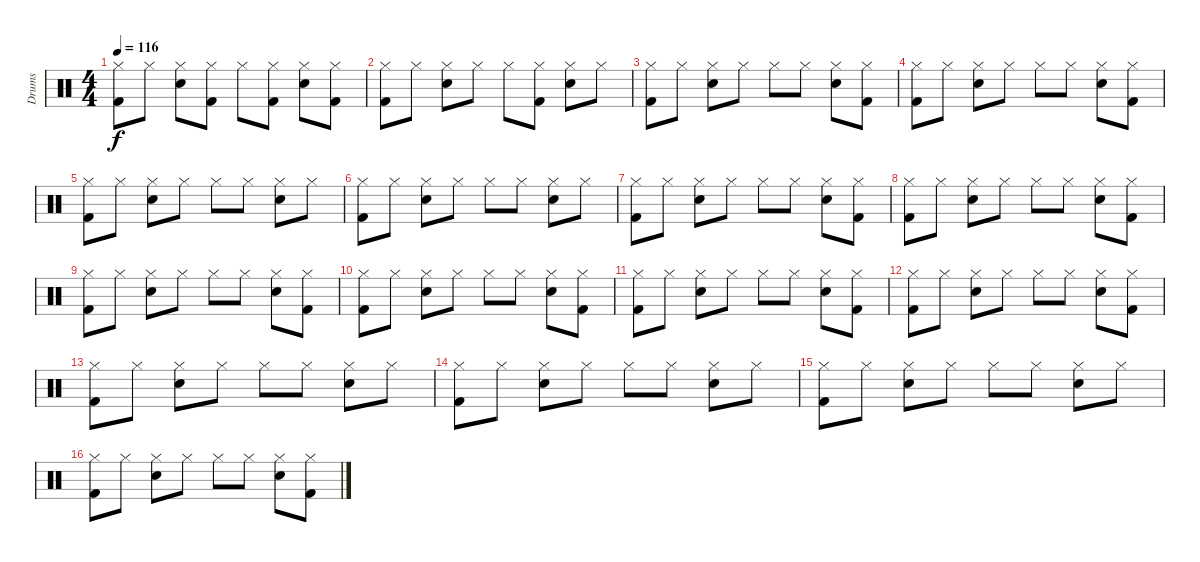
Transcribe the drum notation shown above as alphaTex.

\track ("Drums" "Drums") {instrument percussion}
\staff {score}
\articulation defaults
\ts (4 4)
\tempo 116
\clef neutral
\ks c
("Kick (hit) 2" "Hi-Hat (closed)").8{dy f} "Hi-Hat (closed)".8 ("Snare (hit) 2" "Hi-Hat (closed)").8 ("Kick (hit) 2" "Hi-Hat (closed)").8 "Hi-Hat (closed)".8 ("Kick (hit) 2" "Hi-Hat (closed)").8 ("Snare (hit) 2" "Hi-Hat (closed)").8 ("Kick (hit) 2" "Hi-Hat (closed)").8 |
("Kick (hit) 2" "Hi-Hat (closed)").8 "Hi-Hat (closed)".8 ("Snare (hit) 2" "Hi-Hat (closed)").8 "Hi-Hat (closed)".8 "Hi-Hat (closed)".8 ("Kick (hit) 2" "Hi-Hat (closed)").8 ("Snare (hit) 2" "Hi-Hat (closed)").8 "Hi-Hat (closed)".8 |
("Kick (hit) 2" "Hi-Hat (closed)").8 "Hi-Hat (closed)".8 ("Snare (hit) 2" "Hi-Hat (closed)").8 "Hi-Hat (closed)".8 "Hi-Hat (closed)".8 "Hi-Hat (closed)".8 ("Snare (hit) 2" "Hi-Hat (closed)").8 ("Kick (hit) 2" "Hi-Hat (closed)").8 |
("Kick (hit) 2" "Hi-Hat (closed)").8 "Hi-Hat (closed)".8 ("Snare (hit) 2" "Hi-Hat (closed)").8 "Hi-Hat (closed)".8 "Hi-Hat (closed)".8 "Hi-Hat (closed)".8 ("Snare (hit) 2" "Hi-Hat (closed)").8 ("Kick (hit) 2" "Hi-Hat (closed)").8 |
("Kick (hit) 2" "Hi-Hat (closed)").8 "Hi-Hat (closed)".8 ("Snare (hit) 2" "Hi-Hat (closed)").8 "Hi-Hat (closed)".8 "Hi-Hat (closed)".8 "Hi-Hat (closed)".8 ("Snare (hit) 2" "Hi-Hat (closed)").8 "Hi-Hat (closed)".8 |
("Kick (hit) 2" "Hi-Hat (closed)").8 "Hi-Hat (closed)".8 ("Snare (hit) 2" "Hi-Hat (closed)").8 "Hi-Hat (closed)".8 "Hi-Hat (closed)".8 "Hi-Hat (closed)".8 ("Snare (hit) 2" "Hi-Hat (closed)").8 "Hi-Hat (closed)".8 |
("Kick (hit) 2" "Hi-Hat (closed)").8 "Hi-Hat (closed)".8 ("Snare (hit) 2" "Hi-Hat (closed)").8 "Hi-Hat (closed)".8 "Hi-Hat (closed)".8 "Hi-Hat (closed)".8 ("Snare (hit) 2" "Hi-Hat (closed)").8 ("Kick (hit) 2" "Hi-Hat (closed)").8 |
("Kick (hit) 2" "Hi-Hat (closed)").8 "Hi-Hat (closed)".8 ("Snare (hit) 2" "Hi-Hat (closed)").8 "Hi-Hat (closed)".8 "Hi-Hat (closed)".8 "Hi-Hat (closed)".8 ("Snare (hit) 2" "Hi-Hat (closed)").8 ("Kick (hit) 2" "Hi-Hat (closed)").8 |
("Kick (hit) 2" "Hi-Hat (closed)").8 "Hi-Hat (closed)".8 ("Snare (hit) 2" "Hi-Hat (closed)").8 "Hi-Hat (closed)".8 "Hi-Hat (closed)".8 "Hi-Hat (closed)".8 ("Snare (hit) 2" "Hi-Hat (closed)").8 ("Kick (hit) 2" "Hi-Hat (closed)").8 |
("Kick (hit) 2" "Hi-Hat (closed)").8 "Hi-Hat (closed)".8 ("Snare (hit) 2" "Hi-Hat (closed)").8 "Hi-Hat (closed)".8 "Hi-Hat (closed)".8 "Hi-Hat (closed)".8 ("Snare (hit) 2" "Hi-Hat (closed)").8 ("Kick (hit) 2" "Hi-Hat (closed)").8 |
("Kick (hit) 2" "Hi-Hat (closed)").8 "Hi-Hat (closed)".8 ("Snare (hit) 2" "Hi-Hat (closed)").8 "Hi-Hat (closed)".8 "Hi-Hat (closed)".8 "Hi-Hat (closed)".8 ("Snare (hit) 2" "Hi-Hat (closed)").8 ("Kick (hit) 2" "Hi-Hat (closed)").8 |
("Kick (hit) 2" "Hi-Hat (closed)").8 "Hi-Hat (closed)".8 ("Snare (hit) 2" "Hi-Hat (closed)").8 "Hi-Hat (closed)".8 "Hi-Hat (closed)".8 "Hi-Hat (closed)".8 ("Snare (hit) 2" "Hi-Hat (closed)").8 ("Kick (hit) 2" "Hi-Hat (closed)").8 |
("Kick (hit) 2" "Hi-Hat (closed)").8 "Hi-Hat (closed)".8 ("Snare (hit) 2" "Hi-Hat (closed)").8 "Hi-Hat (closed)".8 "Hi-Hat (closed)".8 "Hi-Hat (closed)".8 ("Snare (hit) 2" "Hi-Hat (closed)").8 "Hi-Hat (closed)".8 |
("Kick (hit) 2" "Hi-Hat (closed)").8 "Hi-Hat (closed)".8 ("Snare (hit) 2" "Hi-Hat (closed)").8 "Hi-Hat (closed)".8 "Hi-Hat (closed)".8 "Hi-Hat (closed)".8 ("Snare (hit) 2" "Hi-Hat (closed)").8 "Hi-Hat (closed)".8 |
("Kick (hit) 2" "Hi-Hat (closed)").8 "Hi-Hat (closed)".8 ("Snare (hit) 2" "Hi-Hat (closed)").8 "Hi-Hat (closed)".8 "Hi-Hat (closed)".8 "Hi-Hat (closed)".8 ("Snare (hit) 2" "Hi-Hat (closed)").8 "Hi-Hat (closed)".8 |
("Kick (hit) 2" "Hi-Hat (closed)").8 "Hi-Hat (closed)".8 ("Snare (hit) 2" "Hi-Hat (closed)").8 "Hi-Hat (closed)".8 "Hi-Hat (closed)".8 "Hi-Hat (closed)".8 ("Snare (hit) 2" "Hi-Hat (closed)").8 ("Kick (hit) 2" "Hi-Hat (closed)").8
